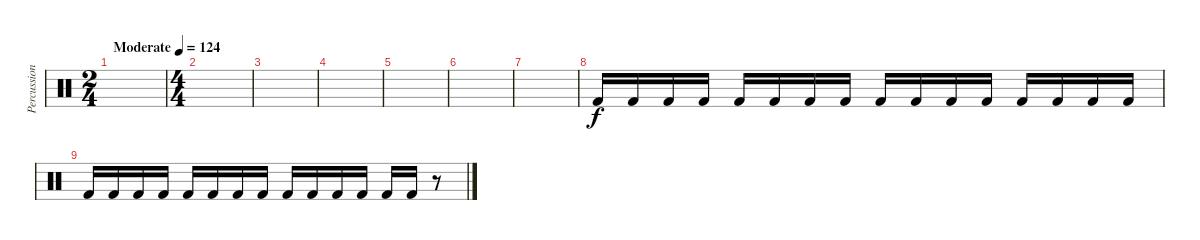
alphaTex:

\track ("Percussion" "Percussion") {instrument percussion}
\staff {score}
\articulation defaults
\ts (2 4)
\tempo (124 "Moderate")
\clef neutral
\ks c
|
\ts (4 4)
|
|
|
|
|
|
"Kick (hit) 2".16 "Kick (hit) 2".16 "Kick (hit) 2".16 "Kick (hit) 2".16 "Kick (hit) 2".16 "Kick (hit) 2".16 "Kick (hit) 2".16 "Kick (hit) 2".16 "Kick (hit) 2".16 "Kick (hit) 2".16 "Kick (hit) 2".16 "Kick (hit) 2".16 "Kick (hit) 2".16 "Kick (hit) 2".16 "Kick (hit) 2".16 "Kick (hit) 2".16 |
"Kick (hit) 2".16 "Kick (hit) 2".16 "Kick (hit) 2".16 "Kick (hit) 2".16 "Kick (hit) 2".16 "Kick (hit) 2".16 "Kick (hit) 2".16 "Kick (hit) 2".16 "Kick (hit) 2".16 "Kick (hit) 2".16 "Kick (hit) 2".16 "Kick (hit) 2".16 "Kick (hit) 2".16 "Kick (hit) 2".16 r.8
